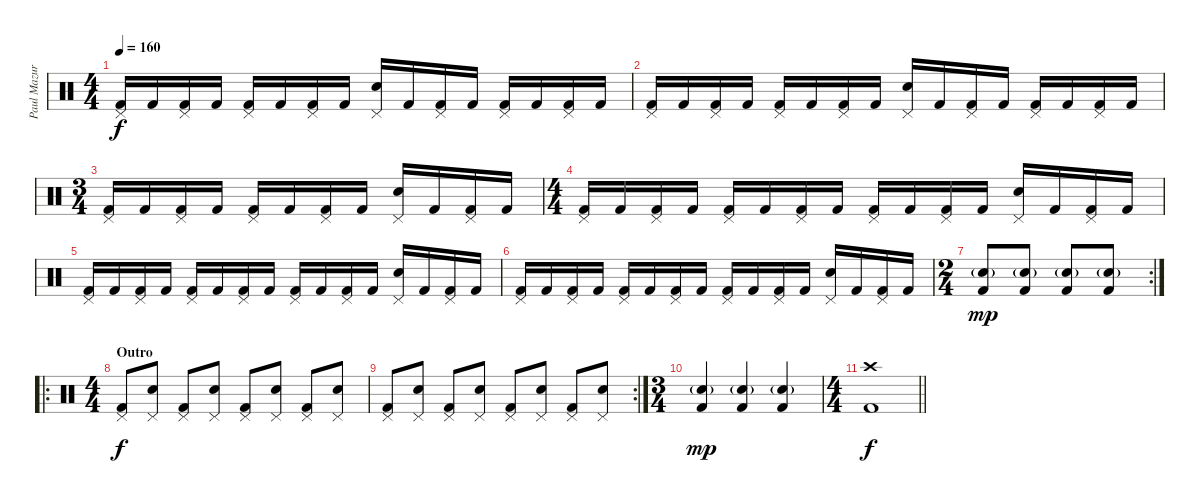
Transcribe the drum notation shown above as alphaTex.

\track ("Paul Mazurkiewicz" "Paul Mazur") {instrument percussion}
\staff {score}
\articulation defaults
\ts (4 4)
\tempo 160
\clef neutral
\ks c
("Pedal Hi-Hat (hit)" "Kick (hit) 2").16{dy f} "Kick (hit) 2".16 ("Pedal Hi-Hat (hit)" "Kick (hit) 2").16 "Kick (hit) 2".16 ("Pedal Hi-Hat (hit)" "Kick (hit) 2").16 "Kick (hit) 2".16 ("Pedal Hi-Hat (hit)" "Kick (hit) 2").16 "Kick (hit) 2".16 ("Pedal Hi-Hat (hit)" "Electric Snare (hit)").16 "Kick (hit) 2".16 ("Pedal Hi-Hat (hit)" "Kick (hit) 2").16 "Kick (hit) 2".16 ("Pedal Hi-Hat (hit)" "Kick (hit) 2").16 "Kick (hit) 2".16 ("Pedal Hi-Hat (hit)" "Kick (hit) 2").16 "Kick (hit) 2".16 |
("Pedal Hi-Hat (hit)" "Kick (hit) 2").16 "Kick (hit) 2".16 ("Pedal Hi-Hat (hit)" "Kick (hit) 2").16 "Kick (hit) 2".16 ("Pedal Hi-Hat (hit)" "Kick (hit) 2").16 "Kick (hit) 2".16 ("Pedal Hi-Hat (hit)" "Kick (hit) 2").16 "Kick (hit) 2".16 ("Pedal Hi-Hat (hit)" "Electric Snare (hit)").16 "Kick (hit) 2".16 ("Pedal Hi-Hat (hit)" "Kick (hit) 2").16 "Kick (hit) 2".16 ("Pedal Hi-Hat (hit)" "Kick (hit) 2").16 "Kick (hit) 2".16 ("Pedal Hi-Hat (hit)" "Kick (hit) 2").16 "Kick (hit) 2".16 |
\ts (3 4)
("Pedal Hi-Hat (hit)" "Kick (hit) 2").16 "Kick (hit) 2".16 ("Pedal Hi-Hat (hit)" "Kick (hit) 2").16 "Kick (hit) 2".16 ("Pedal Hi-Hat (hit)" "Kick (hit) 2").16 "Kick (hit) 2".16 ("Pedal Hi-Hat (hit)" "Kick (hit) 2").16 "Kick (hit) 2".16 ("Pedal Hi-Hat (hit)" "Electric Snare (hit)").16 "Kick (hit) 2".16 ("Pedal Hi-Hat (hit)" "Kick (hit) 2").16 "Kick (hit) 2".16 |
\ts (4 4)
("Pedal Hi-Hat (hit)" "Kick (hit) 2").16 "Kick (hit) 2".16 ("Pedal Hi-Hat (hit)" "Kick (hit) 2").16 "Kick (hit) 2".16 ("Pedal Hi-Hat (hit)" "Kick (hit) 2").16 "Kick (hit) 2".16 ("Pedal Hi-Hat (hit)" "Kick (hit) 2").16 "Kick (hit) 2".16 ("Pedal Hi-Hat (hit)" "Kick (hit) 2").16 "Kick (hit) 2".16 ("Pedal Hi-Hat (hit)" "Kick (hit) 2").16 "Kick (hit) 2".16 ("Pedal Hi-Hat (hit)" "Electric Snare (hit)").16 "Kick (hit) 2".16 ("Pedal Hi-Hat (hit)" "Kick (hit) 2").16 "Kick (hit) 2".16 |
("Pedal Hi-Hat (hit)" "Kick (hit) 2").16 "Kick (hit) 2".16 ("Pedal Hi-Hat (hit)" "Kick (hit) 2").16 "Kick (hit) 2".16 ("Pedal Hi-Hat (hit)" "Kick (hit) 2").16 "Kick (hit) 2".16 ("Pedal Hi-Hat (hit)" "Kick (hit) 2").16 "Kick (hit) 2".16 ("Pedal Hi-Hat (hit)" "Kick (hit) 2").16 "Kick (hit) 2".16 ("Pedal Hi-Hat (hit)" "Kick (hit) 2").16 "Kick (hit) 2".16 ("Pedal Hi-Hat (hit)" "Electric Snare (hit)").16 "Kick (hit) 2".16 ("Pedal Hi-Hat (hit)" "Kick (hit) 2").16 "Kick (hit) 2".16 |
("Pedal Hi-Hat (hit)" "Kick (hit) 2").16 "Kick (hit) 2".16 ("Pedal Hi-Hat (hit)" "Kick (hit) 2").16 "Kick (hit) 2".16 ("Pedal Hi-Hat (hit)" "Kick (hit) 2").16 "Kick (hit) 2".16 ("Pedal Hi-Hat (hit)" "Kick (hit) 2").16 "Kick (hit) 2".16 ("Pedal Hi-Hat (hit)" "Kick (hit) 2").16 "Kick (hit) 2".16 ("Pedal Hi-Hat (hit)" "Kick (hit) 2").16 "Kick (hit) 2".16 ("Pedal Hi-Hat (hit)" "Electric Snare (hit)").16 "Kick (hit) 2".16 ("Pedal Hi-Hat (hit)" "Kick (hit) 2").16 "Kick (hit) 2".16 |
\rc 2
\ts (2 4)
("Snare (hit) 2"{g} "Kick (hit) 2").8{dy mp} ("Snare (hit) 2"{g} "Kick (hit) 2").8 ("Snare (hit) 2"{g} "Kick (hit) 2").8 ("Snare (hit) 2"{g} "Kick (hit) 2").8 |
\ro
\ts (4 4)
\section ("" "Outro")
("Pedal Hi-Hat (hit)" "Kick (hit) 2").8{dy f} ("Pedal Hi-Hat (hit)" "Electric Snare (hit)").8 ("Pedal Hi-Hat (hit)" "Kick (hit) 2").8 ("Pedal Hi-Hat (hit)" "Electric Snare (hit)").8 ("Pedal Hi-Hat (hit)" "Kick (hit) 2").8 ("Pedal Hi-Hat (hit)" "Electric Snare (hit)").8 ("Pedal Hi-Hat (hit)" "Kick (hit) 2").8 ("Pedal Hi-Hat (hit)" "Electric Snare (hit)").8 |
\rc 2
("Pedal Hi-Hat (hit)" "Kick (hit) 2").8 ("Pedal Hi-Hat (hit)" "Electric Snare (hit)").8 ("Pedal Hi-Hat (hit)" "Kick (hit) 2").8 ("Pedal Hi-Hat (hit)" "Electric Snare (hit)").8 ("Pedal Hi-Hat (hit)" "Kick (hit) 2").8 ("Pedal Hi-Hat (hit)" "Electric Snare (hit)").8 ("Pedal Hi-Hat (hit)" "Kick (hit) 2").8 ("Pedal Hi-Hat (hit)" "Electric Snare (hit)").8 |
\ts (3 4)
("Snare (hit) 2"{g} "Kick (hit) 2").4{dy mp} ("Snare (hit) 2"{g} "Kick (hit) 2").4 ("Snare (hit) 2"{g} "Kick (hit) 2").4 |
\ts (4 4)
\barLineRight lightlight
("Crash high (hit)" "Kick (hit) 2").1{dy f}
